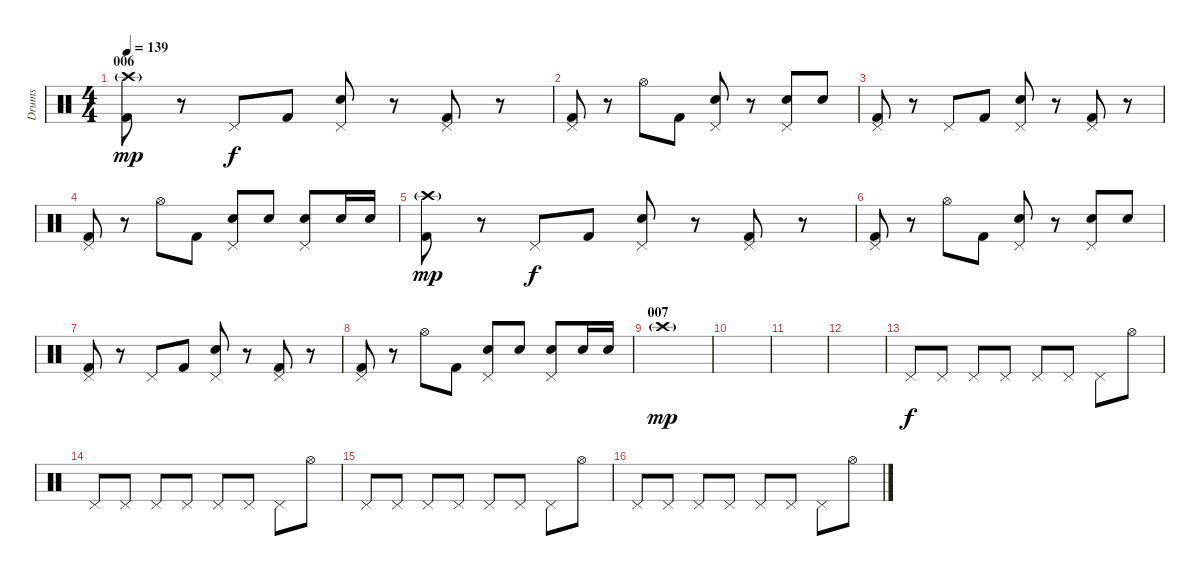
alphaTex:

\track ("Drums" "Drums") {instrument percussion}
\staff {score}
\articulation defaults
\ts (4 4)
\section ("" "006")
\tempo 139
\clef neutral
\ks c
("Kick (hit) 2" "Crash high (hit)"{g}).8{dy mp} r.8 "Pedal Hi-Hat (hit)".8{dy f} "Kick (hit) 2".8 ("Electric Snare (hit)" "Pedal Hi-Hat (hit)").8 r.8 ("Kick (hit) 2" "Pedal Hi-Hat (hit)").8 r.8 |
("Kick (hit) 2" "Pedal Hi-Hat (hit)").8 r.8 "Hi-Hat (open)".8 "Kick (hit) 2".8 ("Electric Snare (hit)" "Pedal Hi-Hat (hit)").8 r.8 ("Electric Snare (hit)" "Pedal Hi-Hat (hit)").8 "Electric Snare (hit)".8 |
("Kick (hit) 2" "Pedal Hi-Hat (hit)").8 r.8 "Pedal Hi-Hat (hit)".8 "Kick (hit) 2".8 ("Electric Snare (hit)" "Pedal Hi-Hat (hit)").8 r.8 ("Kick (hit) 2" "Pedal Hi-Hat (hit)").8 r.8 |
("Kick (hit) 2" "Pedal Hi-Hat (hit)").8 r.8 "Hi-Hat (open)".8 "Kick (hit) 2".8 ("Electric Snare (hit)" "Pedal Hi-Hat (hit)").8 "Electric Snare (hit)".8 ("Electric Snare (hit)" "Pedal Hi-Hat (hit)").8 "Electric Snare (hit)".16 "Electric Snare (hit)".16 |
("Kick (hit) 2" "Crash high (hit)"{g}).8{dy mp} r.8 "Pedal Hi-Hat (hit)".8{dy f} "Kick (hit) 2".8 ("Electric Snare (hit)" "Pedal Hi-Hat (hit)").8 r.8 ("Kick (hit) 2" "Pedal Hi-Hat (hit)").8 r.8 |
("Kick (hit) 2" "Pedal Hi-Hat (hit)").8 r.8 "Hi-Hat (open)".8 "Kick (hit) 2".8 ("Electric Snare (hit)" "Pedal Hi-Hat (hit)").8 r.8 ("Electric Snare (hit)" "Pedal Hi-Hat (hit)").8 "Electric Snare (hit)".8 |
("Kick (hit) 2" "Pedal Hi-Hat (hit)").8 r.8 "Pedal Hi-Hat (hit)".8 "Kick (hit) 2".8 ("Electric Snare (hit)" "Pedal Hi-Hat (hit)").8 r.8 ("Kick (hit) 2" "Pedal Hi-Hat (hit)").8 r.8 |
("Kick (hit) 2" "Pedal Hi-Hat (hit)").8 r.8 "Hi-Hat (open)".8 "Kick (hit) 2".8 ("Electric Snare (hit)" "Pedal Hi-Hat (hit)").8 "Electric Snare (hit)".8 ("Electric Snare (hit)" "Pedal Hi-Hat (hit)").8 "Electric Snare (hit)".16 "Electric Snare (hit)".16 |
\section ("" "007")
"Crash high (hit)"{g}.1{dy mp} |
|
|
|
"Pedal Hi-Hat (hit)".8{dy f} "Pedal Hi-Hat (hit)".8 "Pedal Hi-Hat (hit)".8 "Pedal Hi-Hat (hit)".8 "Pedal Hi-Hat (hit)".8 "Pedal Hi-Hat (hit)".8 "Pedal Hi-Hat (hit)".8 "Hi-Hat (open)".8 |
"Pedal Hi-Hat (hit)".8 "Pedal Hi-Hat (hit)".8 "Pedal Hi-Hat (hit)".8 "Pedal Hi-Hat (hit)".8 "Pedal Hi-Hat (hit)".8 "Pedal Hi-Hat (hit)".8 "Pedal Hi-Hat (hit)".8 "Hi-Hat (open)".8 |
"Pedal Hi-Hat (hit)".8 "Pedal Hi-Hat (hit)".8 "Pedal Hi-Hat (hit)".8 "Pedal Hi-Hat (hit)".8 "Pedal Hi-Hat (hit)".8 "Pedal Hi-Hat (hit)".8 "Pedal Hi-Hat (hit)".8 "Hi-Hat (open)".8 |
"Pedal Hi-Hat (hit)".8 "Pedal Hi-Hat (hit)".8 "Pedal Hi-Hat (hit)".8 "Pedal Hi-Hat (hit)".8 "Pedal Hi-Hat (hit)".8 "Pedal Hi-Hat (hit)".8 "Pedal Hi-Hat (hit)".8 "Hi-Hat (open)".8
